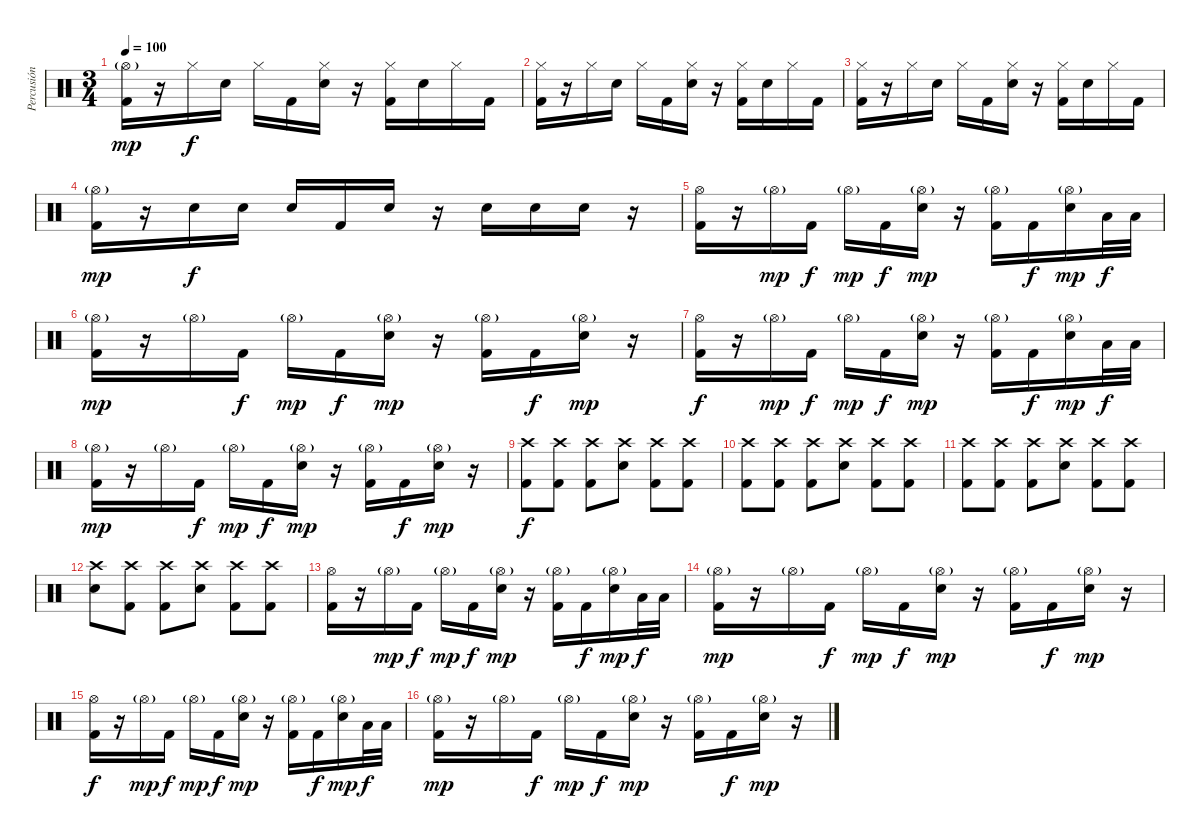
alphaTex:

\track ("Percusión" "Percusión") {instrument percussion}
\staff {score}
\articulation defaults
\ts (3 4)
\tempo 100
\clef neutral
\ks c
("Hi-Hat (open)"{g} "Kick (hit) 2").16{dy mp} r.16 "Hi-Hat (closed)".16{dy f} "Snare (hit) 2".16 "Hi-Hat (closed)".16 "Kick (hit) 2".16 ("Hi-Hat (closed)" "Snare (hit) 2").16 r.16 ("Hi-Hat (closed)" "Kick (hit) 2").16 "Snare (hit) 2".16 "Hi-Hat (closed)".16 "Kick (hit) 2".16 |
("Hi-Hat (closed)" "Kick (hit) 2").16 r.16 "Hi-Hat (closed)".16 "Snare (hit) 2".16 "Hi-Hat (closed)".16 "Kick (hit) 2".16 ("Hi-Hat (closed)" "Snare (hit) 2").16 r.16 ("Hi-Hat (closed)" "Kick (hit) 2").16 "Snare (hit) 2".16 "Hi-Hat (closed)".16 "Kick (hit) 2".16 |
("Hi-Hat (closed)" "Kick (hit) 2").16 r.16 "Hi-Hat (closed)".16 "Snare (hit) 2".16 "Hi-Hat (closed)".16 "Kick (hit) 2".16 ("Hi-Hat (closed)" "Snare (hit) 2").16 r.16 ("Hi-Hat (closed)" "Kick (hit) 2").16 "Snare (hit) 2".16 "Hi-Hat (closed)".16 "Kick (hit) 2".16 |
("Hi-Hat (open)"{g} "Kick (hit) 2").16{dy mp} r.16 "Snare (hit) 2".16{dy f} "Snare (hit) 2".16 "Snare (hit) 2".16 "Kick (hit) 2".16 "Snare (hit) 2".16 r.16 "Snare (hit) 2".16 "Snare (hit) 2".16 "Snare (hit) 2".16 r.16 |
("Hi-Hat (open)" "Kick (hit) 2").16 r.16 "Hi-Hat (open)"{g}.16{dy mp} "Kick (hit) 2".16{dy f} "Hi-Hat (open)"{g}.16{dy mp} "Kick (hit) 2".16{dy f} ("Hi-Hat (open)"{g} "Snare (hit) 2").16{dy mp} r.16 ("Hi-Hat (open)"{g} "Kick (hit) 2").16 "Kick (hit) 2".16{dy f} ("Hi-Hat (open)"{g} "Snare (hit) 2").16{dy mp} "Low Tom (hit)".32{dy f} "Low Tom (hit)".32 |
("Hi-Hat (open)"{g} "Kick (hit) 2").16{dy mp} r.16 "Hi-Hat (open)"{g}.16 "Kick (hit) 2".16{dy f} "Hi-Hat (open)"{g}.16{dy mp} "Kick (hit) 2".16{dy f} ("Hi-Hat (open)"{g} "Snare (hit) 2").16{dy mp} r.16 ("Hi-Hat (open)"{g} "Kick (hit) 2").16 "Kick (hit) 2".16{dy f} ("Hi-Hat (open)"{g} "Snare (hit) 2").16{dy mp} r.16 |
("Hi-Hat (open)" "Kick (hit) 2").16{dy f} r.16 "Hi-Hat (open)"{g}.16{dy mp} "Kick (hit) 2".16{dy f} "Hi-Hat (open)"{g}.16{dy mp} "Kick (hit) 2".16{dy f} ("Hi-Hat (open)"{g} "Snare (hit) 2").16{dy mp} r.16 ("Hi-Hat (open)"{g} "Kick (hit) 2").16 "Kick (hit) 2".16{dy f} ("Hi-Hat (open)"{g} "Snare (hit) 2").16{dy mp} "Low Tom (hit)".32{dy f} "Low Tom (hit)".32 |
("Hi-Hat (open)"{g} "Kick (hit) 2").16{dy mp} r.16 "Hi-Hat (open)"{g}.16 "Kick (hit) 2".16{dy f} "Hi-Hat (open)"{g}.16{dy mp} "Kick (hit) 2".16{dy f} ("Hi-Hat (open)"{g} "Snare (hit) 2").16{dy mp} r.16 ("Hi-Hat (open)"{g} "Kick (hit) 2").16 "Kick (hit) 2".16{dy f} ("Hi-Hat (open)"{g} "Snare (hit) 2").16{dy mp} r.16 |
("Crash high (hit)" "Kick (hit) 2").8{dy f} ("Crash high (hit)" "Kick (hit) 2").8 ("Crash high (hit)" "Kick (hit) 2").8 ("Crash high (hit)" "Snare (hit) 2").8 ("Crash high (hit)" "Kick (hit) 2").8 ("Crash high (hit)" "Kick (hit) 2").8 |
("Crash high (hit)" "Kick (hit) 2").8 ("Crash high (hit)" "Kick (hit) 2").8 ("Crash high (hit)" "Kick (hit) 2").8 ("Crash high (hit)" "Snare (hit) 2").8 ("Crash high (hit)" "Kick (hit) 2").8 ("Crash high (hit)" "Kick (hit) 2").8 |
("Crash high (hit)" "Kick (hit) 2").8 ("Crash high (hit)" "Kick (hit) 2").8 ("Crash high (hit)" "Kick (hit) 2").8 ("Crash high (hit)" "Snare (hit) 2").8 ("Crash high (hit)" "Kick (hit) 2").8 ("Crash high (hit)" "Kick (hit) 2").8 |
("Crash high (hit)" "Snare (hit) 2").8 ("Crash high (hit)" "Kick (hit) 2").8 ("Crash high (hit)" "Kick (hit) 2").8 ("Crash high (hit)" "Snare (hit) 2").8 ("Crash high (hit)" "Kick (hit) 2").8 ("Crash high (hit)" "Kick (hit) 2").8 |
("Hi-Hat (open)" "Kick (hit) 2").16 r.16 "Hi-Hat (open)"{g}.16{dy mp} "Kick (hit) 2".16{dy f} "Hi-Hat (open)"{g}.16{dy mp} "Kick (hit) 2".16{dy f} ("Hi-Hat (open)"{g} "Snare (hit) 2").16{dy mp} r.16 ("Hi-Hat (open)"{g} "Kick (hit) 2").16 "Kick (hit) 2".16{dy f} ("Hi-Hat (open)"{g} "Snare (hit) 2").16{dy mp} "Low Tom (hit)".32{dy f} "Low Tom (hit)".32 |
("Hi-Hat (open)"{g} "Kick (hit) 2").16{dy mp} r.16 "Hi-Hat (open)"{g}.16 "Kick (hit) 2".16{dy f} "Hi-Hat (open)"{g}.16{dy mp} "Kick (hit) 2".16{dy f} ("Hi-Hat (open)"{g} "Snare (hit) 2").16{dy mp} r.16 ("Hi-Hat (open)"{g} "Kick (hit) 2").16 "Kick (hit) 2".16{dy f} ("Hi-Hat (open)"{g} "Snare (hit) 2").16{dy mp} r.16 |
("Hi-Hat (open)" "Kick (hit) 2").16{dy f} r.16 "Hi-Hat (open)"{g}.16{dy mp} "Kick (hit) 2".16{dy f} "Hi-Hat (open)"{g}.16{dy mp} "Kick (hit) 2".16{dy f} ("Hi-Hat (open)"{g} "Snare (hit) 2").16{dy mp} r.16 ("Hi-Hat (open)"{g} "Kick (hit) 2").16 "Kick (hit) 2".16{dy f} ("Hi-Hat (open)"{g} "Snare (hit) 2").16{dy mp} "Low Tom (hit)".32{dy f} "Low Tom (hit)".32 |
("Hi-Hat (open)"{g} "Kick (hit) 2").16{dy mp} r.16 "Hi-Hat (open)"{g}.16 "Kick (hit) 2".16{dy f} "Hi-Hat (open)"{g}.16{dy mp} "Kick (hit) 2".16{dy f} ("Hi-Hat (open)"{g} "Snare (hit) 2").16{dy mp} r.16 ("Hi-Hat (open)"{g} "Kick (hit) 2").16 "Kick (hit) 2".16{dy f} ("Hi-Hat (open)"{g} "Snare (hit) 2").16{dy mp} r.16
